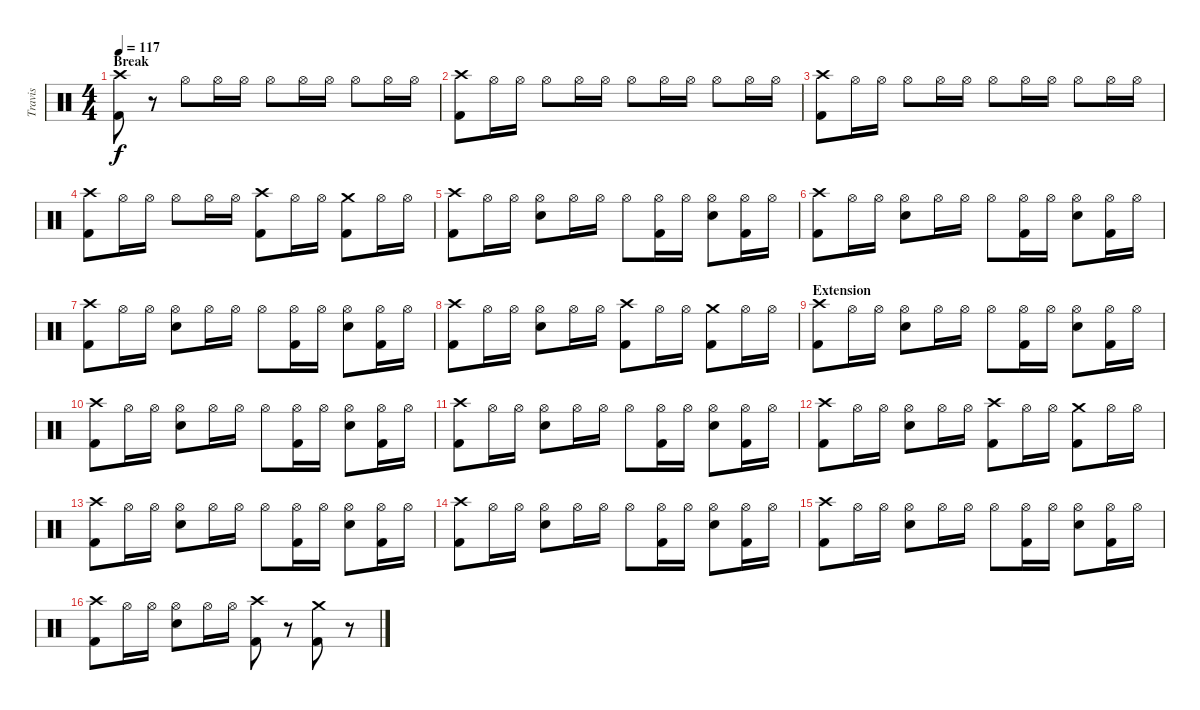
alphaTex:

\track ("Travis" "Travis") {instrument percussion}
\staff {score}
\articulation defaults
\ts (4 4)
\section ("" "Break")
\tempo 117
\clef neutral
\ks c
("Crash high (hit)" "Kick (hit) 2").8{dy f} r.8 "Hi-Hat (open)".8 "Hi-Hat (open)".16 "Hi-Hat (open)".16 "Hi-Hat (open)".8 "Hi-Hat (open)".16 "Hi-Hat (open)".16 "Hi-Hat (open)".8 "Hi-Hat (open)".16 "Hi-Hat (open)".16 |
("Crash high (hit)" "Kick (hit) 2").8 "Hi-Hat (open)".16 "Hi-Hat (open)".16 "Hi-Hat (open)".8 "Hi-Hat (open)".16 "Hi-Hat (open)".16 "Hi-Hat (open)".8 "Hi-Hat (open)".16 "Hi-Hat (open)".16 "Hi-Hat (open)".8 "Hi-Hat (open)".16 "Hi-Hat (open)".16 |
("Crash high (hit)" "Kick (hit) 2").8 "Hi-Hat (open)".16 "Hi-Hat (open)".16 "Hi-Hat (open)".8 "Hi-Hat (open)".16 "Hi-Hat (open)".16 "Hi-Hat (open)".8 "Hi-Hat (open)".16 "Hi-Hat (open)".16 "Hi-Hat (open)".8 "Hi-Hat (open)".16 "Hi-Hat (open)".16 |
("Crash high (hit)" "Kick (hit) 2").8 "Hi-Hat (open)".16 "Hi-Hat (open)".16 "Hi-Hat (open)".8 "Hi-Hat (open)".16 "Hi-Hat (open)".16 ("Crash high (hit)" "Kick (hit) 2").8 "Hi-Hat (open)".16 "Hi-Hat (open)".16 ("Crash medium (hit)" "Kick (hit) 2").8 "Hi-Hat (open)".16 "Hi-Hat (open)".16 |
("Crash high (hit)" "Kick (hit) 2").8 "Hi-Hat (open)".16 "Hi-Hat (open)".16 ("Hi-Hat (open)" "Electric Snare (hit)").8 "Hi-Hat (open)".16 "Hi-Hat (open)".16 "Hi-Hat (open)".8 ("Hi-Hat (open)" "Kick (hit) 2").16 "Hi-Hat (open)".16 ("Hi-Hat (open)" "Electric Snare (hit)").8 ("Hi-Hat (open)" "Kick (hit) 2").16 "Hi-Hat (open)".16 |
("Crash high (hit)" "Kick (hit) 2").8 "Hi-Hat (open)".16 "Hi-Hat (open)".16 ("Hi-Hat (open)" "Electric Snare (hit)").8 "Hi-Hat (open)".16 "Hi-Hat (open)".16 "Hi-Hat (open)".8 ("Hi-Hat (open)" "Kick (hit) 2").16 "Hi-Hat (open)".16 ("Hi-Hat (open)" "Electric Snare (hit)").8 ("Hi-Hat (open)" "Kick (hit) 2").16 "Hi-Hat (open)".16 |
("Crash high (hit)" "Kick (hit) 2").8 "Hi-Hat (open)".16 "Hi-Hat (open)".16 ("Hi-Hat (open)" "Electric Snare (hit)").8 "Hi-Hat (open)".16 "Hi-Hat (open)".16 "Hi-Hat (open)".8 ("Hi-Hat (open)" "Kick (hit) 2").16 "Hi-Hat (open)".16 ("Hi-Hat (open)" "Electric Snare (hit)").8 ("Hi-Hat (open)" "Kick (hit) 2").16 "Hi-Hat (open)".16 |
("Crash high (hit)" "Kick (hit) 2").8 "Hi-Hat (open)".16 "Hi-Hat (open)".16 ("Hi-Hat (open)" "Electric Snare (hit)").8 "Hi-Hat (open)".16 "Hi-Hat (open)".16 ("Crash high (hit)" "Kick (hit) 2").8 "Hi-Hat (open)".16 "Hi-Hat (open)".16 ("Crash medium (hit)" "Kick (hit) 2").8 "Hi-Hat (open)".16 "Hi-Hat (open)".16 |
\section ("" "Extension")
("Crash high (hit)" "Kick (hit) 2").8 "Hi-Hat (open)".16 "Hi-Hat (open)".16 ("Hi-Hat (open)" "Electric Snare (hit)").8 "Hi-Hat (open)".16 "Hi-Hat (open)".16 "Hi-Hat (open)".8 ("Hi-Hat (open)" "Kick (hit) 2").16 "Hi-Hat (open)".16 ("Hi-Hat (open)" "Electric Snare (hit)").8 ("Hi-Hat (open)" "Kick (hit) 2").16 "Hi-Hat (open)".16 |
("Crash high (hit)" "Kick (hit) 2").8 "Hi-Hat (open)".16 "Hi-Hat (open)".16 ("Hi-Hat (open)" "Electric Snare (hit)").8 "Hi-Hat (open)".16 "Hi-Hat (open)".16 "Hi-Hat (open)".8 ("Hi-Hat (open)" "Kick (hit) 2").16 "Hi-Hat (open)".16 ("Hi-Hat (open)" "Electric Snare (hit)").8 ("Hi-Hat (open)" "Kick (hit) 2").16 "Hi-Hat (open)".16 |
("Crash high (hit)" "Kick (hit) 2").8 "Hi-Hat (open)".16 "Hi-Hat (open)".16 ("Hi-Hat (open)" "Electric Snare (hit)").8 "Hi-Hat (open)".16 "Hi-Hat (open)".16 "Hi-Hat (open)".8 ("Hi-Hat (open)" "Kick (hit) 2").16 "Hi-Hat (open)".16 ("Hi-Hat (open)" "Electric Snare (hit)").8 ("Hi-Hat (open)" "Kick (hit) 2").16 "Hi-Hat (open)".16 |
("Crash high (hit)" "Kick (hit) 2").8 "Hi-Hat (open)".16 "Hi-Hat (open)".16 ("Hi-Hat (open)" "Electric Snare (hit)").8 "Hi-Hat (open)".16 "Hi-Hat (open)".16 ("Crash high (hit)" "Kick (hit) 2").8 "Hi-Hat (open)".16 "Hi-Hat (open)".16 ("Crash medium (hit)" "Kick (hit) 2").8 "Hi-Hat (open)".16 "Hi-Hat (open)".16 |
("Crash high (hit)" "Kick (hit) 2").8 "Hi-Hat (open)".16 "Hi-Hat (open)".16 ("Hi-Hat (open)" "Electric Snare (hit)").8 "Hi-Hat (open)".16 "Hi-Hat (open)".16 "Hi-Hat (open)".8 ("Hi-Hat (open)" "Kick (hit) 2").16 "Hi-Hat (open)".16 ("Hi-Hat (open)" "Electric Snare (hit)").8 ("Hi-Hat (open)" "Kick (hit) 2").16 "Hi-Hat (open)".16 |
("Crash high (hit)" "Kick (hit) 2").8 "Hi-Hat (open)".16 "Hi-Hat (open)".16 ("Hi-Hat (open)" "Electric Snare (hit)").8 "Hi-Hat (open)".16 "Hi-Hat (open)".16 "Hi-Hat (open)".8 ("Hi-Hat (open)" "Kick (hit) 2").16 "Hi-Hat (open)".16 ("Hi-Hat (open)" "Electric Snare (hit)").8 ("Hi-Hat (open)" "Kick (hit) 2").16 "Hi-Hat (open)".16 |
("Crash high (hit)" "Kick (hit) 2").8 "Hi-Hat (open)".16 "Hi-Hat (open)".16 ("Hi-Hat (open)" "Electric Snare (hit)").8 "Hi-Hat (open)".16 "Hi-Hat (open)".16 "Hi-Hat (open)".8 ("Hi-Hat (open)" "Kick (hit) 2").16 "Hi-Hat (open)".16 ("Hi-Hat (open)" "Electric Snare (hit)").8 ("Hi-Hat (open)" "Kick (hit) 2").16 "Hi-Hat (open)".16 |
("Crash high (hit)" "Kick (hit) 2").8 "Hi-Hat (open)".16 "Hi-Hat (open)".16 ("Hi-Hat (open)" "Electric Snare (hit)").8 "Hi-Hat (open)".16 "Hi-Hat (open)".16 ("Crash high (hit)" "Kick (hit) 2").8 r.8 ("Crash medium (hit)" "Kick (hit) 2").8 r.8
